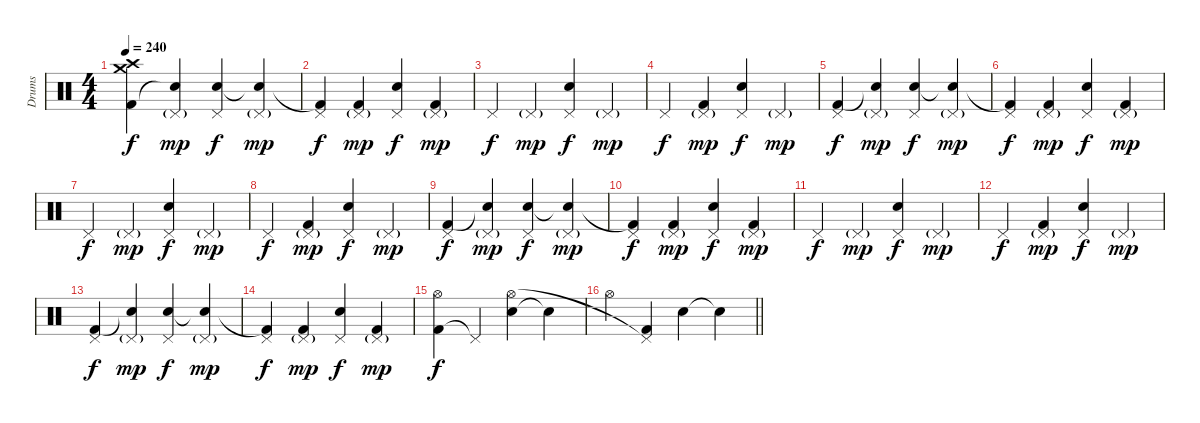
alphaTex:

\track ("Drums" "Drums") {instrument percussion}
\staff {score}
\articulation defaults
\ts (4 4)
\tempo 240
\clef neutral
\ks c
("Kick (hit) 2" "Crash medium (hit)" "Crash high (hit)").4{dy f} ("Electric Snare (hit)"{t} "Pedal Hi-Hat (hit)"{g}).4{dy mp} ("Electric Snare (hit)" "Pedal Hi-Hat (hit)").4{dy f} ("Snare (hit)"{t} "Pedal Hi-Hat (hit)"{g}).4{dy mp} |
("Kick (hit) 2"{t} "Pedal Hi-Hat (hit)").4{dy f} ("Kick (hit) 2" "Pedal Hi-Hat (hit)"{g}).4{dy mp} ("Electric Snare (hit)" "Pedal Hi-Hat (hit)").4{dy f} ("Kick (hit) 2" "Pedal Hi-Hat (hit)"{g}).4{dy mp} |
"Pedal Hi-Hat (hit)".4{dy f} "Pedal Hi-Hat (hit)"{g}.4{dy mp} ("Electric Snare (hit)" "Pedal Hi-Hat (hit)").4{dy f} "Pedal Hi-Hat (hit)"{g}.4{dy mp} |
"Pedal Hi-Hat (hit)".4{dy f} ("Kick (hit) 2" "Pedal Hi-Hat (hit)"{g}).4{dy mp} ("Electric Snare (hit)" "Pedal Hi-Hat (hit)").4{dy f} "Pedal Hi-Hat (hit)"{g}.4{dy mp} |
("Kick (hit) 2" "Pedal Hi-Hat (hit)").4{dy f} ("Electric Snare (hit)"{t} "Pedal Hi-Hat (hit)"{g}).4{dy mp} ("Electric Snare (hit)" "Pedal Hi-Hat (hit)").4{dy f} ("Snare (hit)"{t} "Pedal Hi-Hat (hit)"{g}).4{dy mp} |
("Kick (hit) 2"{t} "Pedal Hi-Hat (hit)").4{dy f} ("Kick (hit) 2" "Pedal Hi-Hat (hit)"{g}).4{dy mp} ("Electric Snare (hit)" "Pedal Hi-Hat (hit)").4{dy f} ("Kick (hit) 2" "Pedal Hi-Hat (hit)"{g}).4{dy mp} |
"Pedal Hi-Hat (hit)".4{dy f} "Pedal Hi-Hat (hit)"{g}.4{dy mp} ("Electric Snare (hit)" "Pedal Hi-Hat (hit)").4{dy f} "Pedal Hi-Hat (hit)"{g}.4{dy mp} |
"Pedal Hi-Hat (hit)".4{dy f} ("Kick (hit) 2" "Pedal Hi-Hat (hit)"{g}).4{dy mp} ("Electric Snare (hit)" "Pedal Hi-Hat (hit)").4{dy f} "Pedal Hi-Hat (hit)"{g}.4{dy mp} |
("Kick (hit) 2" "Pedal Hi-Hat (hit)").4{dy f} ("Electric Snare (hit)"{t} "Pedal Hi-Hat (hit)"{g}).4{dy mp} ("Electric Snare (hit)" "Pedal Hi-Hat (hit)").4{dy f} ("Snare (hit)"{t} "Pedal Hi-Hat (hit)"{g}).4{dy mp} |
("Kick (hit) 2"{t} "Pedal Hi-Hat (hit)").4{dy f} ("Kick (hit) 2" "Pedal Hi-Hat (hit)"{g}).4{dy mp} ("Electric Snare (hit)" "Pedal Hi-Hat (hit)").4{dy f} ("Kick (hit) 2" "Pedal Hi-Hat (hit)"{g}).4{dy mp} |
"Pedal Hi-Hat (hit)".4{dy f} "Pedal Hi-Hat (hit)"{g}.4{dy mp} ("Electric Snare (hit)" "Pedal Hi-Hat (hit)").4{dy f} "Pedal Hi-Hat (hit)"{g}.4{dy mp} |
"Pedal Hi-Hat (hit)".4{dy f} ("Kick (hit) 2" "Pedal Hi-Hat (hit)"{g}).4{dy mp} ("Electric Snare (hit)" "Pedal Hi-Hat (hit)").4{dy f} "Pedal Hi-Hat (hit)"{g}.4{dy mp} |
("Kick (hit) 2" "Pedal Hi-Hat (hit)").4{dy f} ("Electric Snare (hit)"{t} "Pedal Hi-Hat (hit)"{g}).4{dy mp} ("Electric Snare (hit)" "Pedal Hi-Hat (hit)").4{dy f} ("Snare (hit)"{t} "Pedal Hi-Hat (hit)"{g}).4{dy mp} |
("Kick (hit) 2"{t} "Pedal Hi-Hat (hit)").4{dy f} ("Kick (hit) 2" "Pedal Hi-Hat (hit)"{g}).4{dy mp} ("Electric Snare (hit)" "Pedal Hi-Hat (hit)").4{dy f} ("Kick (hit) 2" "Pedal Hi-Hat (hit)"{g}).4{dy mp} |
("Kick (hit) 2" "Hi-Hat (open)").4{dy f} "Pedal Hi-Hat (hit)"{t}.4 ("Electric Snare (hit)" "Hi-Hat (open)").4 "Snare (hit)"{t}.4 |
\barLineRight lightlight "Hi-Hat (open)".4
("Kick (hit) 2" "Pedal Hi-Hat (hit)"{t}).4 "Electric Snare (hit)".4 "Snare (hit)"{t}.4{volume 7}
